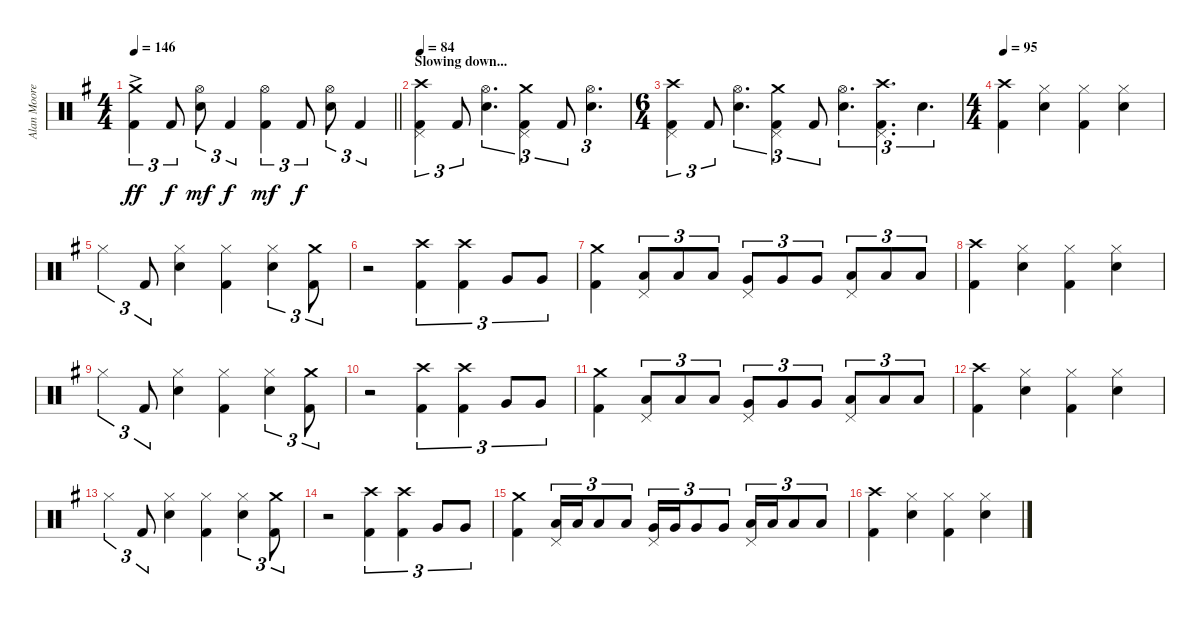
\track ("Alan Moore" "Alan Moore") {instrument percussion}
\staff {score}
\articulation defaults
\ts (4 4)
\tempo 146
\clef neutral
\barLineRight lightlight
\ks eminor
("Crash medium (hit)"{ac} "Kick (hit) 2").4{tu (3 2) dy ff} "Kick (hit) 2".8{tu (3 2) dy f} ("Hi-Hat (open)" "Electric Snare (hit)").8{tu (3 2) dy mf} "Kick (hit) 2".4{tu (3 2) dy f} ("Hi-Hat (open)" "Kick (hit) 2").4{tu (3 2) dy mf} "Kick (hit) 2".8{tu (3 2) dy f} ("Hi-Hat (open)" "Electric Snare (hit)").8{tu (3 2)} "Kick (hit) 2".4{tu (3 2)} |
\section ("" "Slowing down...")
\tempo 84
("Pedal Hi-Hat (hit)" "Crash high (hit)" "Kick (hit) 2").4{tu (3 2)} "Kick (hit) 2".8{tu (3 2)} ("Hi-Hat (open)" "Electric Snare (hit)").4{d tu (3 2)} ("Pedal Hi-Hat (hit)" "Crash medium (hit)" "Kick (hit) 2").4{tu (3 2)} "Kick (hit) 2".8{tu (3 2)} ("Hi-Hat (open)" "Electric Snare (hit)").4{d tu (3 2)} |
\ts (6 4)
("Pedal Hi-Hat (hit)" "Crash high (hit)" "Kick (hit) 2").4{tu (3 2)} "Kick (hit) 2".8{tu (3 2)} ("Hi-Hat (open)" "Electric Snare (hit)").4{d tu (3 2)} ("Pedal Hi-Hat (hit)" "Crash medium (hit)" "Kick (hit) 2").4{tu (3 2)} "Kick (hit) 2".8{tu (3 2)} ("Hi-Hat (open)" "Electric Snare (hit)").4{d tu (3 2)} ("Pedal Hi-Hat (hit)" "Crash high (hit)" "Kick (hit) 2").4{d tu (3 2)} "Electric Snare (hit)".4{d tu (3 2)} |
\ts (4 4)
\tempo 95
("Crash high (hit)" "Kick (hit) 2").4 ("Hi-Hat (closed)" "Electric Snare (hit)").4 ("Hi-Hat (closed)" "Kick (hit) 2").4 ("Hi-Hat (closed)" "Electric Snare (hit)").4 |
"Hi-Hat (closed)".4{tu (3 2)} "Kick (hit) 2".8{tu (3 2)} ("Hi-Hat (closed)" "Electric Snare (hit)").4 ("Hi-Hat (closed)" "Kick (hit) 2").4 ("Hi-Hat (closed)" "Electric Snare (hit)").4{tu (3 2)} ("Crash medium (hit)" "Kick (hit) 2").8{tu (3 2)} |
r.2 ("Crash high (hit)" "Kick (hit) 2").4{tu (3 2)} ("Crash high (hit)" "Kick (hit) 2").4{tu (3 2)} "Very Low Tom (hit)".8{tu (3 2)} "Very Low Tom (hit)".8{tu (3 2)} |
("Crash medium (hit)" "Kick (hit) 2").4 ("Pedal Hi-Hat (hit)" "Low Tom (hit)").8{tu (3 2)} "Low Tom (hit)".8{tu (3 2)} "Low Tom (hit)".8{tu (3 2)} ("Pedal Hi-Hat (hit)" "Very Low Tom (hit)").8{tu (3 2)} "Very Low Tom (hit)".8{tu (3 2)} "Very Low Tom (hit)".8{tu (3 2)} ("Pedal Hi-Hat (hit)" "Low Floor Tom (hit)").8{tu (3 2)} "Low Floor Tom (hit)".8{tu (3 2)} "Low Floor Tom (hit)".8{tu (3 2)} |
("Crash high (hit)" "Kick (hit) 2").4 ("Hi-Hat (closed)" "Electric Snare (hit)").4 ("Hi-Hat (closed)" "Kick (hit) 2").4 ("Hi-Hat (closed)" "Electric Snare (hit)").4 |
"Hi-Hat (closed)".4{tu (3 2)} "Kick (hit) 2".8{tu (3 2)} ("Hi-Hat (closed)" "Electric Snare (hit)").4 ("Hi-Hat (closed)" "Kick (hit) 2").4 ("Hi-Hat (closed)" "Electric Snare (hit)").4{tu (3 2)} ("Crash medium (hit)" "Kick (hit) 2").8{tu (3 2)} |
r.2 ("Crash high (hit)" "Kick (hit) 2").4{tu (3 2)} ("Crash high (hit)" "Kick (hit) 2").4{tu (3 2)} "Very Low Tom (hit)".8{tu (3 2)} "Very Low Tom (hit)".8{tu (3 2)} |
("Crash medium (hit)" "Kick (hit) 2").4 ("Pedal Hi-Hat (hit)" "Low Tom (hit)").8{tu (3 2)} "Low Tom (hit)".8{tu (3 2)} "Low Tom (hit)".8{tu (3 2)} ("Pedal Hi-Hat (hit)" "Very Low Tom (hit)").8{tu (3 2)} "Very Low Tom (hit)".8{tu (3 2)} "Very Low Tom (hit)".8{tu (3 2)} ("Pedal Hi-Hat (hit)" "Low Floor Tom (hit)").8{tu (3 2)} "Low Floor Tom (hit)".8{tu (3 2)} "Low Floor Tom (hit)".8{tu (3 2)} |
("Crash high (hit)" "Kick (hit) 2").4 ("Hi-Hat (closed)" "Electric Snare (hit)").4 ("Hi-Hat (closed)" "Kick (hit) 2").4 ("Hi-Hat (closed)" "Electric Snare (hit)").4 |
"Hi-Hat (closed)".4{tu (3 2)} "Kick (hit) 2".8{tu (3 2)} ("Hi-Hat (closed)" "Electric Snare (hit)").4 ("Hi-Hat (closed)" "Kick (hit) 2").4 ("Hi-Hat (closed)" "Electric Snare (hit)").4{tu (3 2)} ("Crash medium (hit)" "Kick (hit) 2").8{tu (3 2)} |
r.2 ("Crash high (hit)" "Kick (hit) 2").4{tu (3 2)} ("Crash high (hit)" "Kick (hit) 2").4{tu (3 2)} "Very Low Tom (hit)".8{tu (3 2)} "Very Low Tom (hit)".8{tu (3 2)} |
("Crash medium (hit)" "Kick (hit) 2").4 ("Pedal Hi-Hat (hit)" "Low Tom (hit)").16{tu (3 2)} "Low Tom (hit)".16{tu (3 2)} "Low Tom (hit)".8{tu (3 2)} "Low Tom (hit)".8{tu (3 2)} ("Pedal Hi-Hat (hit)" "Very Low Tom (hit)").16{tu (3 2)} "Very Low Tom (hit)".16{tu (3 2)} "Very Low Tom (hit)".8{tu (3 2)} "Very Low Tom (hit)".8{tu (3 2)} ("Pedal Hi-Hat (hit)" "Low Floor Tom (hit)").16{tu (3 2)} "Low Floor Tom (hit)".16{tu (3 2)} "Low Floor Tom (hit)".8{tu (3 2)} "Low Floor Tom (hit)".8{tu (3 2)} |
("Crash high (hit)" "Kick (hit) 2").4 ("Hi-Hat (closed)" "Electric Snare (hit)").4 ("Hi-Hat (closed)" "Kick (hit) 2").4 ("Hi-Hat (closed)" "Electric Snare (hit)").4
